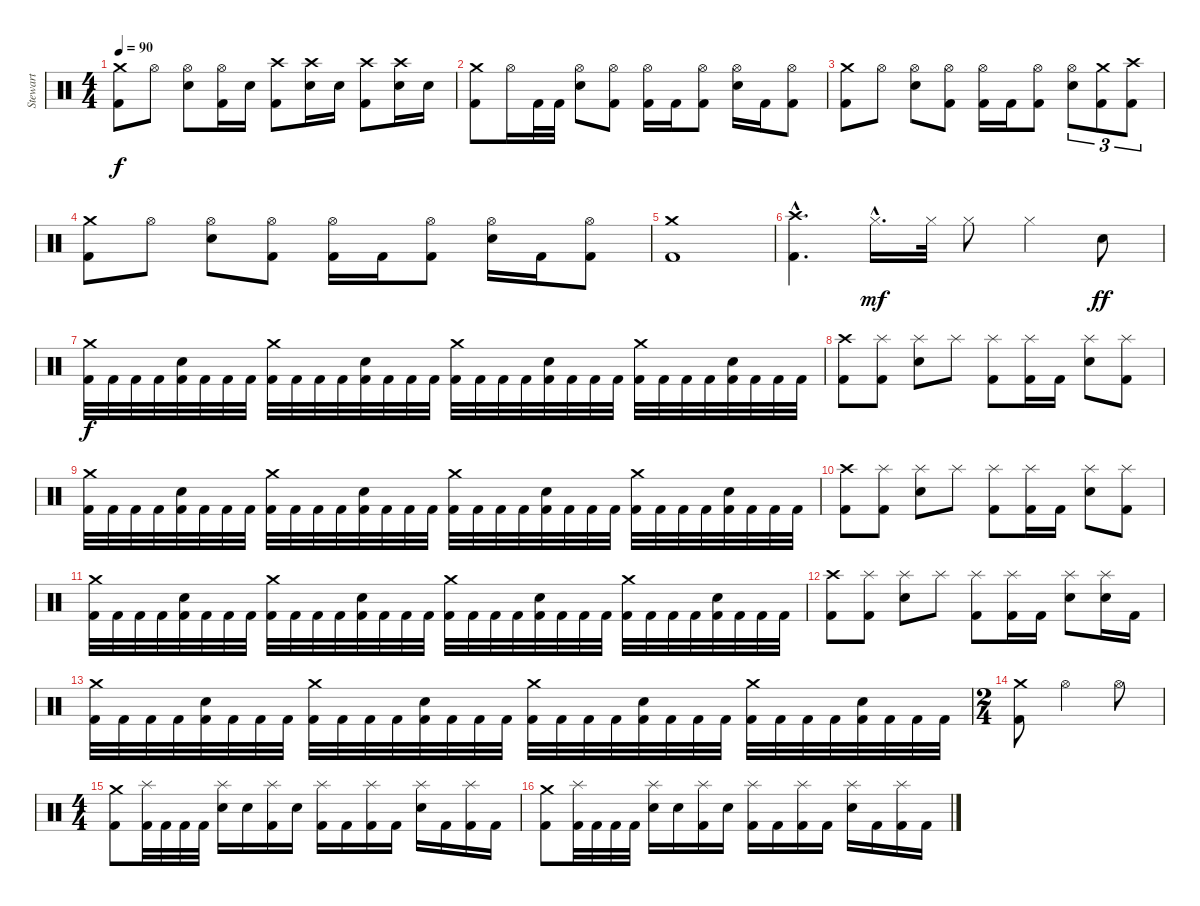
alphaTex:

\track ("Stewart" "Stewart") {instrument percussion}
\staff {score}
\articulation defaults
\ts (4 4)
\tempo 90
\clef neutral
\ks c
("Crash medium (hit)" "Kick (hit) 2").8{dy f} "Hi-Hat (open)".8 ("Hi-Hat (open)" "Electric Snare (hit)").8 ("Hi-Hat (open)" "Kick (hit) 2").16 "Electric Snare (hit)".16 ("Crash high (hit)" "Kick (hit) 2").8 ("Crash high (hit)" "Electric Snare (hit)").16 "Electric Snare (hit)".16 ("Crash high (hit)" "Kick (hit) 2").8 ("Crash high (hit)" "Electric Snare (hit)").16 "Electric Snare (hit)".16 |
("Crash medium (hit)" "Kick (hit) 2").8 "Hi-Hat (open)".16 "Kick (hit) 2".32 "Kick (hit) 2".32 ("Hi-Hat (open)" "Electric Snare (hit)").8 ("Hi-Hat (open)" "Kick (hit) 2").8 ("Hi-Hat (open)" "Kick (hit) 2").16 "Kick (hit) 2".16 ("Hi-Hat (open)" "Kick (hit) 2").8 ("Hi-Hat (open)" "Electric Snare (hit)").16 "Kick (hit) 2".16 ("Hi-Hat (open)" "Kick (hit) 2").8 |
("Crash medium (hit)" "Kick (hit) 2").8 "Hi-Hat (open)".8 ("Hi-Hat (open)" "Electric Snare (hit)").8 ("Hi-Hat (open)" "Kick (hit) 2").8 ("Hi-Hat (open)" "Kick (hit) 2").16 "Kick (hit) 2".16 ("Hi-Hat (open)" "Kick (hit) 2").8 ("Hi-Hat (open)" "Electric Snare (hit)").8{tu (3 2)} ("Crash medium (hit)" "Kick (hit) 2").8{tu (3 2)} ("Crash high (hit)" "Kick (hit) 2").8{tu (3 2)} |
("Crash medium (hit)" "Kick (hit) 2").8 "Hi-Hat (open)".8 ("Hi-Hat (open)" "Electric Snare (hit)").8 ("Hi-Hat (open)" "Kick (hit) 2").8 ("Hi-Hat (open)" "Kick (hit) 2").16 "Kick (hit) 2".16 ("Hi-Hat (open)" "Kick (hit) 2").8 ("Hi-Hat (open)" "Electric Snare (hit)").16 "Kick (hit) 2".16 ("Hi-Hat (open)" "Kick (hit) 2").8 |
("Crash medium (hit)" "Kick (hit) 2").1 |
("Crash high (hit)"{hac} "Kick (hit) 2"{hac}).4{d} "Hi-Hat (closed)"{hac}.16{d dy mf} "Hi-Hat (closed)".32 "Hi-Hat (closed)".8 "Hi-Hat (closed)".4 "Electric Snare (hit)".8{dy ff} |
("Crash medium (hit)" "Kick (hit) 2").32{dy f} "Kick (hit) 2".32 "Kick (hit) 2".32 "Kick (hit) 2".32 ("Electric Snare (hit)" "Kick (hit) 2").32 "Kick (hit) 2".32 "Kick (hit) 2".32 "Kick (hit) 2".32 ("Crash medium (hit)" "Kick (hit) 2").32 "Kick (hit) 2".32 "Kick (hit) 2".32 "Kick (hit) 2".32 ("Electric Snare (hit)" "Kick (hit) 2").32 "Kick (hit) 2".32 "Kick (hit) 2".32 "Kick (hit) 2".32 ("Crash medium (hit)" "Kick (hit) 2").32 "Kick (hit) 2".32 "Kick (hit) 2".32 "Kick (hit) 2".32 ("Electric Snare (hit)" "Kick (hit) 2").32 "Kick (hit) 2".32 "Kick (hit) 2".32 "Kick (hit) 2".32 ("Crash medium (hit)" "Kick (hit) 2").32 "Kick (hit) 2".32 "Kick (hit) 2".32 "Kick (hit) 2".32 ("Electric Snare (hit)" "Kick (hit) 2").32 "Kick (hit) 2".32 "Kick (hit) 2".32 "Kick (hit) 2".32 |
("Crash high (hit)" "Kick (hit) 2").8 ("Splash (hit)" "Kick (hit) 2").8 ("Splash (hit)" "Electric Snare (hit)").8 "Splash (hit)".8 ("Splash (hit)" "Kick (hit) 2").8 ("Splash (hit)" "Kick (hit) 2").16 "Kick (hit) 2".16 ("Splash (hit)" "Electric Snare (hit)").8 ("Splash (hit)" "Kick (hit) 2").8 |
("Crash medium (hit)" "Kick (hit) 2").32 "Kick (hit) 2".32 "Kick (hit) 2".32 "Kick (hit) 2".32 ("Electric Snare (hit)" "Kick (hit) 2").32 "Kick (hit) 2".32 "Kick (hit) 2".32 "Kick (hit) 2".32 ("Crash medium (hit)" "Kick (hit) 2").32 "Kick (hit) 2".32 "Kick (hit) 2".32 "Kick (hit) 2".32 ("Electric Snare (hit)" "Kick (hit) 2").32 "Kick (hit) 2".32 "Kick (hit) 2".32 "Kick (hit) 2".32 ("Crash medium (hit)" "Kick (hit) 2").32 "Kick (hit) 2".32 "Kick (hit) 2".32 "Kick (hit) 2".32 ("Electric Snare (hit)" "Kick (hit) 2").32 "Kick (hit) 2".32 "Kick (hit) 2".32 "Kick (hit) 2".32 ("Crash medium (hit)" "Kick (hit) 2").32 "Kick (hit) 2".32 "Kick (hit) 2".32 "Kick (hit) 2".32 ("Electric Snare (hit)" "Kick (hit) 2").32 "Kick (hit) 2".32 "Kick (hit) 2".32 "Kick (hit) 2".32 |
("Crash high (hit)" "Kick (hit) 2").8 ("Splash (hit)" "Kick (hit) 2").8 ("Splash (hit)" "Electric Snare (hit)").8 "Splash (hit)".8 ("Splash (hit)" "Kick (hit) 2").8 ("Splash (hit)" "Kick (hit) 2").16 "Kick (hit) 2".16 ("Splash (hit)" "Electric Snare (hit)").8 ("Splash (hit)" "Kick (hit) 2").8 |
("Crash medium (hit)" "Kick (hit) 2").32 "Kick (hit) 2".32 "Kick (hit) 2".32 "Kick (hit) 2".32 ("Electric Snare (hit)" "Kick (hit) 2").32 "Kick (hit) 2".32 "Kick (hit) 2".32 "Kick (hit) 2".32 ("Crash medium (hit)" "Kick (hit) 2").32 "Kick (hit) 2".32 "Kick (hit) 2".32 "Kick (hit) 2".32 ("Electric Snare (hit)" "Kick (hit) 2").32 "Kick (hit) 2".32 "Kick (hit) 2".32 "Kick (hit) 2".32 ("Crash medium (hit)" "Kick (hit) 2").32 "Kick (hit) 2".32 "Kick (hit) 2".32 "Kick (hit) 2".32 ("Electric Snare (hit)" "Kick (hit) 2").32 "Kick (hit) 2".32 "Kick (hit) 2".32 "Kick (hit) 2".32 ("Crash medium (hit)" "Kick (hit) 2").32 "Kick (hit) 2".32 "Kick (hit) 2".32 "Kick (hit) 2".32 ("Electric Snare (hit)" "Kick (hit) 2").32 "Kick (hit) 2".32 "Kick (hit) 2".32 "Kick (hit) 2".32 |
("Crash high (hit)" "Kick (hit) 2").8 ("Splash (hit)" "Kick (hit) 2").8 ("Splash (hit)" "Electric Snare (hit)").8 "Splash (hit)".8 ("Splash (hit)" "Kick (hit) 2").8 ("Splash (hit)" "Kick (hit) 2").16 "Kick (hit) 2".16 ("Splash (hit)" "Electric Snare (hit)").8 ("Splash (hit)" "Electric Snare (hit)").16 "Kick (hit) 2".16 |
("Crash medium (hit)" "Kick (hit) 2").32 "Kick (hit) 2".32 "Kick (hit) 2".32 "Kick (hit) 2".32 ("Electric Snare (hit)" "Kick (hit) 2").32 "Kick (hit) 2".32 "Kick (hit) 2".32 "Kick (hit) 2".32 ("Crash medium (hit)" "Kick (hit) 2").32 "Kick (hit) 2".32 "Kick (hit) 2".32 "Kick (hit) 2".32 ("Electric Snare (hit)" "Kick (hit) 2").32 "Kick (hit) 2".32 "Kick (hit) 2".32 "Kick (hit) 2".32 ("Crash medium (hit)" "Kick (hit) 2").32 "Kick (hit) 2".32 "Kick (hit) 2".32 "Kick (hit) 2".32 ("Electric Snare (hit)" "Kick (hit) 2").32 "Kick (hit) 2".32 "Kick (hit) 2".32 "Kick (hit) 2".32 ("Crash medium (hit)" "Kick (hit) 2").32 "Kick (hit) 2".32 "Kick (hit) 2".32 "Kick (hit) 2".32 ("Electric Snare (hit)" "Kick (hit) 2").32 "Kick (hit) 2".32 "Kick (hit) 2".32 "Kick (hit) 2".32 |
\ts (2 4)
("Crash medium (hit)" "Kick (hit) 2").8 "Hi-Hat (open)".4 "Hi-Hat (open)".8 |
\ts (4 4)
("Crash medium (hit)" "Kick (hit) 2").8 ("Splash (hit)" "Kick (hit) 2").32 "Kick (hit) 2".32 "Kick (hit) 2".32 "Kick (hit) 2".32 ("Splash (hit)" "Electric Snare (hit)").16 "Electric Snare (hit)".16 ("Splash (hit)" "Kick (hit) 2").16 "Electric Snare (hit)".16 ("Splash (hit)" "Kick (hit) 2").16 "Kick (hit) 2".16 ("Splash (hit)" "Kick (hit) 2").16 "Kick (hit) 2".16 ("Splash (hit)" "Electric Snare (hit)").16 "Kick (hit) 2".16 ("Splash (hit)" "Kick (hit) 2").16 "Kick (hit) 2".16 |
("Crash medium (hit)" "Kick (hit) 2").8 ("Splash (hit)" "Kick (hit) 2").32 "Kick (hit) 2".32 "Kick (hit) 2".32 "Kick (hit) 2".32 ("Splash (hit)" "Electric Snare (hit)").16 "Electric Snare (hit)".16 ("Splash (hit)" "Kick (hit) 2").16 "Electric Snare (hit)".16 ("Splash (hit)" "Kick (hit) 2").16 "Kick (hit) 2".16 ("Splash (hit)" "Kick (hit) 2").16 "Kick (hit) 2".16 ("Splash (hit)" "Electric Snare (hit)").16 "Kick (hit) 2".16 ("Splash (hit)" "Kick (hit) 2").16 "Kick (hit) 2".16
